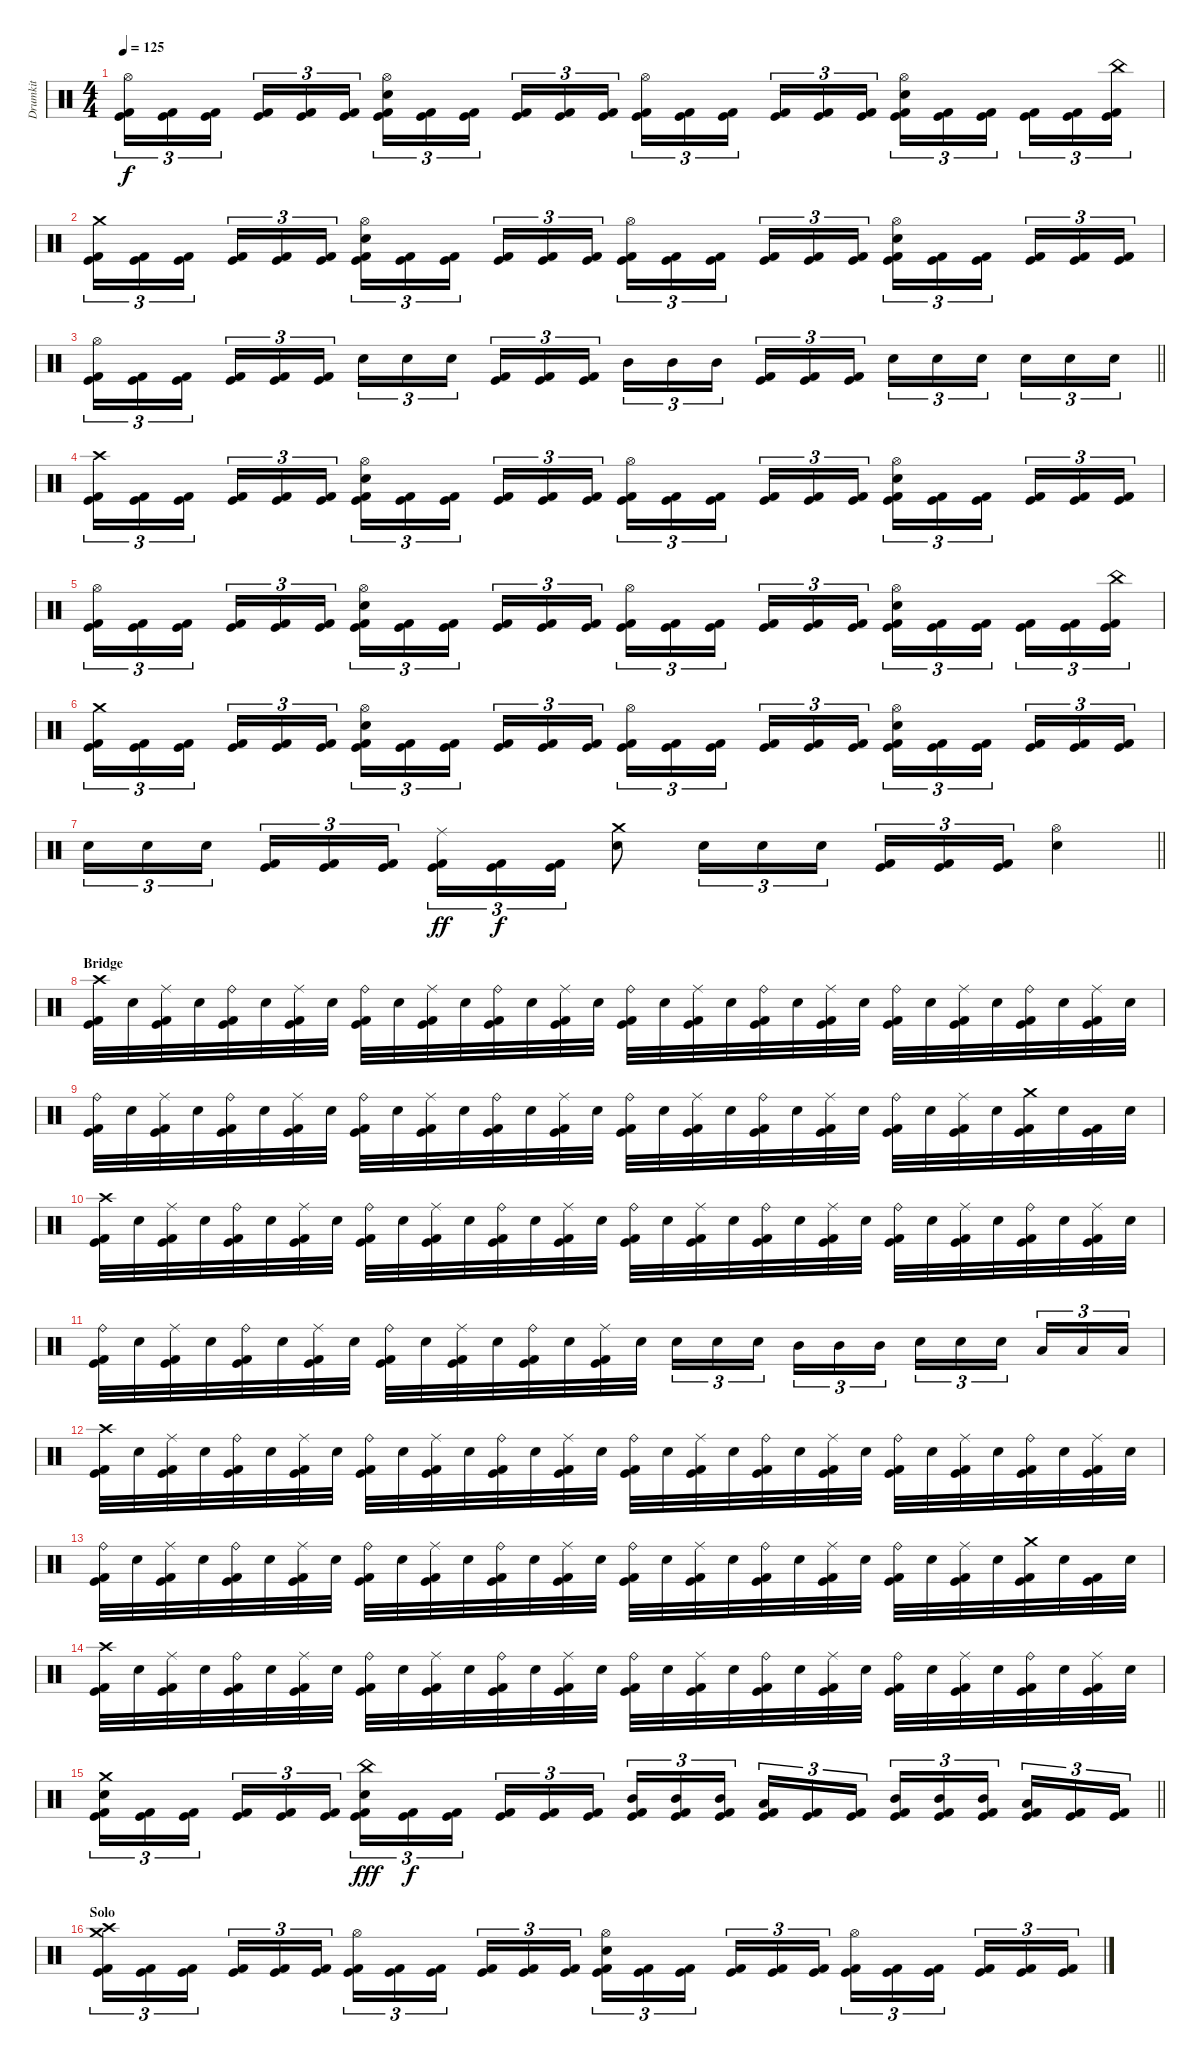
\track ("Drumkit" "Drumkit") {instrument percussion}
\staff {score}
\articulation defaults
\ts (4 4)
\tempo 125
\clef neutral
\ks c
("Hi-Hat (open)" "Kick (hit)" "Kick (hit) 2").16{tu (3 2) dy f} ("Kick (hit)" "Kick (hit) 2").16{tu (3 2)} ("Kick (hit)" "Kick (hit) 2").16{tu (3 2) beam splitsecondary} ("Kick (hit)" "Kick (hit) 2").16{tu (3 2)} ("Kick (hit)" "Kick (hit) 2").16{tu (3 2)} ("Kick (hit)" "Kick (hit) 2").16{tu (3 2)} ("Hi-Hat (open)" "Electric Snare (hit)" "Kick (hit)" "Kick (hit) 2").16{tu (3 2)} ("Kick (hit)" "Kick (hit) 2").16{tu (3 2)} ("Kick (hit)" "Kick (hit) 2").16{tu (3 2) beam splitsecondary} ("Kick (hit)" "Kick (hit) 2").16{tu (3 2)} ("Kick (hit)" "Kick (hit) 2").16{tu (3 2)} ("Kick (hit)" "Kick (hit) 2").16{tu (3 2)} ("Hi-Hat (open)" "Kick (hit)" "Kick (hit) 2").16{tu (3 2)} ("Kick (hit)" "Kick (hit) 2").16{tu (3 2)} ("Kick (hit)" "Kick (hit) 2").16{tu (3 2) beam splitsecondary} ("Kick (hit)" "Kick (hit) 2").16{tu (3 2)} ("Kick (hit)" "Kick (hit) 2").16{tu (3 2)} ("Kick (hit)" "Kick (hit) 2").16{tu (3 2)} ("Hi-Hat (open)" "Electric Snare (hit)" "Kick (hit)" "Kick (hit) 2").16{tu (3 2)} ("Kick (hit)" "Kick (hit) 2").16{tu (3 2)} ("Kick (hit)" "Kick (hit) 2").16{tu (3 2) beam splitsecondary} ("Kick (hit)" "Kick (hit) 2").16{tu (3 2)} ("Kick (hit)" "Kick (hit) 2").16{tu (3 2)} ("China (hit)" "Kick (hit)" "Kick (hit) 2").16{tu (3 2)} |
("Crash medium (hit)" "Kick (hit)" "Kick (hit) 2").16{tu (3 2)} ("Kick (hit)" "Kick (hit) 2").16{tu (3 2)} ("Kick (hit)" "Kick (hit) 2").16{tu (3 2) beam splitsecondary} ("Kick (hit)" "Kick (hit) 2").16{tu (3 2)} ("Kick (hit)" "Kick (hit) 2").16{tu (3 2)} ("Kick (hit)" "Kick (hit) 2").16{tu (3 2)} ("Hi-Hat (open)" "Electric Snare (hit)" "Kick (hit)" "Kick (hit) 2").16{tu (3 2)} ("Kick (hit)" "Kick (hit) 2").16{tu (3 2)} ("Kick (hit)" "Kick (hit) 2").16{tu (3 2) beam splitsecondary} ("Kick (hit)" "Kick (hit) 2").16{tu (3 2)} ("Kick (hit)" "Kick (hit) 2").16{tu (3 2)} ("Kick (hit)" "Kick (hit) 2").16{tu (3 2)} ("Hi-Hat (open)" "Kick (hit)" "Kick (hit) 2").16{tu (3 2)} ("Kick (hit)" "Kick (hit) 2").16{tu (3 2)} ("Kick (hit)" "Kick (hit) 2").16{tu (3 2) beam splitsecondary} ("Kick (hit)" "Kick (hit) 2").16{tu (3 2)} ("Kick (hit)" "Kick (hit) 2").16{tu (3 2)} ("Kick (hit)" "Kick (hit) 2").16{tu (3 2)} ("Hi-Hat (open)" "Electric Snare (hit)" "Kick (hit)" "Kick (hit) 2").16{tu (3 2)} ("Kick (hit)" "Kick (hit) 2").16{tu (3 2)} ("Kick (hit)" "Kick (hit) 2").16{tu (3 2) beam splitsecondary} ("Kick (hit)" "Kick (hit) 2").16{tu (3 2)} ("Kick (hit)" "Kick (hit) 2").16{tu (3 2)} ("Kick (hit)" "Kick (hit) 2").16{tu (3 2)} |
\barLineRight lightlight
("Hi-Hat (open)" "Kick (hit)" "Kick (hit) 2").16{tu (3 2)} ("Kick (hit)" "Kick (hit) 2").16{tu (3 2)} ("Kick (hit)" "Kick (hit) 2").16{tu (3 2) beam splitsecondary} ("Kick (hit)" "Kick (hit) 2").16{tu (3 2)} ("Kick (hit)" "Kick (hit) 2").16{tu (3 2)} ("Kick (hit)" "Kick (hit) 2").16{tu (3 2)} "Electric Snare (hit)".16{tu (3 2)} "Electric Snare (hit)".16{tu (3 2)} "Electric Snare (hit)".16{tu (3 2) beam splitsecondary} ("Kick (hit)" "Kick (hit) 2").16{tu (3 2)} ("Kick (hit)" "Kick (hit) 2").16{tu (3 2)} ("Kick (hit)" "Kick (hit) 2").16{tu (3 2)} "Mid Tom (hit)".16{tu (3 2)} "Mid Tom (hit)".16{tu (3 2)} "Mid Tom (hit)".16{tu (3 2) beam splitsecondary} ("Kick (hit)" "Kick (hit) 2").16{tu (3 2)} ("Kick (hit)" "Kick (hit) 2").16{tu (3 2)} ("Kick (hit)" "Kick (hit) 2").16{tu (3 2)} "Electric Snare (hit)".16{tu (3 2)} "Electric Snare (hit)".16{tu (3 2)} "Electric Snare (hit)".16{tu (3 2) beam splitsecondary} "Electric Snare (hit)".16{tu (3 2)} "Electric Snare (hit)".16{tu (3 2)} "Electric Snare (hit)".16{tu (3 2)} |
("Crash high (hit)" "Kick (hit)" "Kick (hit) 2").16{tu (3 2)} ("Kick (hit)" "Kick (hit) 2").16{tu (3 2)} ("Kick (hit)" "Kick (hit) 2").16{tu (3 2) beam splitsecondary} ("Kick (hit)" "Kick (hit) 2").16{tu (3 2)} ("Kick (hit)" "Kick (hit) 2").16{tu (3 2)} ("Kick (hit)" "Kick (hit) 2").16{tu (3 2)} ("Hi-Hat (open)" "Electric Snare (hit)" "Kick (hit)" "Kick (hit) 2").16{tu (3 2)} ("Kick (hit)" "Kick (hit) 2").16{tu (3 2)} ("Kick (hit)" "Kick (hit) 2").16{tu (3 2) beam splitsecondary} ("Kick (hit)" "Kick (hit) 2").16{tu (3 2)} ("Kick (hit)" "Kick (hit) 2").16{tu (3 2)} ("Kick (hit)" "Kick (hit) 2").16{tu (3 2)} ("Hi-Hat (open)" "Kick (hit)" "Kick (hit) 2").16{tu (3 2)} ("Kick (hit)" "Kick (hit) 2").16{tu (3 2)} ("Kick (hit)" "Kick (hit) 2").16{tu (3 2) beam splitsecondary} ("Kick (hit)" "Kick (hit) 2").16{tu (3 2)} ("Kick (hit)" "Kick (hit) 2").16{tu (3 2)} ("Kick (hit)" "Kick (hit) 2").16{tu (3 2)} ("Hi-Hat (open)" "Electric Snare (hit)" "Kick (hit)" "Kick (hit) 2").16{tu (3 2)} ("Kick (hit)" "Kick (hit) 2").16{tu (3 2)} ("Kick (hit)" "Kick (hit) 2").16{tu (3 2) beam splitsecondary} ("Kick (hit)" "Kick (hit) 2").16{tu (3 2)} ("Kick (hit)" "Kick (hit) 2").16{tu (3 2)} ("Kick (hit)" "Kick (hit) 2").16{tu (3 2)} |
("Hi-Hat (open)" "Kick (hit)" "Kick (hit) 2").16{tu (3 2)} ("Kick (hit)" "Kick (hit) 2").16{tu (3 2)} ("Kick (hit)" "Kick (hit) 2").16{tu (3 2) beam splitsecondary} ("Kick (hit)" "Kick (hit) 2").16{tu (3 2)} ("Kick (hit)" "Kick (hit) 2").16{tu (3 2)} ("Kick (hit)" "Kick (hit) 2").16{tu (3 2)} ("Hi-Hat (open)" "Electric Snare (hit)" "Kick (hit)" "Kick (hit) 2").16{tu (3 2)} ("Kick (hit)" "Kick (hit) 2").16{tu (3 2)} ("Kick (hit)" "Kick (hit) 2").16{tu (3 2) beam splitsecondary} ("Kick (hit)" "Kick (hit) 2").16{tu (3 2)} ("Kick (hit)" "Kick (hit) 2").16{tu (3 2)} ("Kick (hit)" "Kick (hit) 2").16{tu (3 2)} ("Hi-Hat (open)" "Kick (hit)" "Kick (hit) 2").16{tu (3 2)} ("Kick (hit)" "Kick (hit) 2").16{tu (3 2)} ("Kick (hit)" "Kick (hit) 2").16{tu (3 2) beam splitsecondary} ("Kick (hit)" "Kick (hit) 2").16{tu (3 2)} ("Kick (hit)" "Kick (hit) 2").16{tu (3 2)} ("Kick (hit)" "Kick (hit) 2").16{tu (3 2)} ("Hi-Hat (open)" "Electric Snare (hit)" "Kick (hit)" "Kick (hit) 2").16{tu (3 2)} ("Kick (hit)" "Kick (hit) 2").16{tu (3 2)} ("Kick (hit)" "Kick (hit) 2").16{tu (3 2) beam splitsecondary} ("Kick (hit)" "Kick (hit) 2").16{tu (3 2)} ("Kick (hit)" "Kick (hit) 2").16{tu (3 2)} ("China (hit)" "Kick (hit)" "Kick (hit) 2").16{tu (3 2)} |
("Crash medium (hit)" "Kick (hit)" "Kick (hit) 2").16{tu (3 2)} ("Kick (hit)" "Kick (hit) 2").16{tu (3 2)} ("Kick (hit)" "Kick (hit) 2").16{tu (3 2) beam splitsecondary} ("Kick (hit)" "Kick (hit) 2").16{tu (3 2)} ("Kick (hit)" "Kick (hit) 2").16{tu (3 2)} ("Kick (hit)" "Kick (hit) 2").16{tu (3 2)} ("Hi-Hat (open)" "Electric Snare (hit)" "Kick (hit)" "Kick (hit) 2").16{tu (3 2)} ("Kick (hit)" "Kick (hit) 2").16{tu (3 2)} ("Kick (hit)" "Kick (hit) 2").16{tu (3 2) beam splitsecondary} ("Kick (hit)" "Kick (hit) 2").16{tu (3 2)} ("Kick (hit)" "Kick (hit) 2").16{tu (3 2)} ("Kick (hit)" "Kick (hit) 2").16{tu (3 2)} ("Hi-Hat (open)" "Kick (hit)" "Kick (hit) 2").16{tu (3 2)} ("Kick (hit)" "Kick (hit) 2").16{tu (3 2)} ("Kick (hit)" "Kick (hit) 2").16{tu (3 2) beam splitsecondary} ("Kick (hit)" "Kick (hit) 2").16{tu (3 2)} ("Kick (hit)" "Kick (hit) 2").16{tu (3 2)} ("Kick (hit)" "Kick (hit) 2").16{tu (3 2)} ("Hi-Hat (open)" "Electric Snare (hit)" "Kick (hit)" "Kick (hit) 2").16{tu (3 2)} ("Kick (hit)" "Kick (hit) 2").16{tu (3 2)} ("Kick (hit)" "Kick (hit) 2").16{tu (3 2) beam splitsecondary} ("Kick (hit)" "Kick (hit) 2").16{tu (3 2)} ("Kick (hit)" "Kick (hit) 2").16{tu (3 2)} ("Kick (hit)" "Kick (hit) 2").16{tu (3 2)} |
\barLineRight lightlight "Electric Snare (hit)".16{tu (3 2)} "Electric Snare (hit)".16{tu (3 2)} "Electric Snare (hit)".16{tu (3 2) beam splitsecondary}
("Kick (hit)" "Kick (hit) 2").16{tu (3 2)} ("Kick (hit)" "Kick (hit) 2").16{tu (3 2)} ("Kick (hit)" "Kick (hit) 2").16{tu (3 2)} ("Ride (middle)" "Kick (hit)" "Kick (hit) 2").16{tu (3 2) dy ff} ("Kick (hit)" "Kick (hit) 2").16{tu (3 2) dy f} ("Kick (hit)" "Kick (hit) 2").16{tu (3 2)} ("Crash medium (hit)" "Electric Snare (hit)").8 "Electric Snare (hit)".16{tu (3 2)} "Electric Snare (hit)".16{tu (3 2)} "Electric Snare (hit)".16{tu (3 2) beam splitsecondary} ("Kick (hit)" "Kick (hit) 2").16{tu (3 2)} ("Kick (hit)" "Kick (hit) 2").16{tu (3 2)} ("Kick (hit)" "Kick (hit) 2").16{tu (3 2)} ("Hi-Hat (open)" "Electric Snare (hit)").4 |
\section ("" "Bridge")
("Crash high (hit)" "Kick (hit)" "Kick (hit) 2").32 "Electric Snare (hit)".32 ("Ride (middle)" "Kick (hit)" "Kick (hit) 2").32 "Electric Snare (hit)".32 ("Ride (bell)" "Kick (hit)" "Kick (hit) 2").32 "Electric Snare (hit)".32 ("Ride (middle)" "Kick (hit)" "Kick (hit) 2").32 "Electric Snare (hit)".32 ("Ride (bell)" "Kick (hit)" "Kick (hit) 2").32 "Electric Snare (hit)".32 ("Ride (middle)" "Kick (hit)" "Kick (hit) 2").32 "Electric Snare (hit)".32 ("Ride (bell)" "Kick (hit)" "Kick (hit) 2").32 "Electric Snare (hit)".32 ("Ride (middle)" "Kick (hit)" "Kick (hit) 2").32 "Electric Snare (hit)".32 ("Ride (bell)" "Kick (hit)" "Kick (hit) 2").32 "Electric Snare (hit)".32 ("Ride (middle)" "Kick (hit)" "Kick (hit) 2").32 "Electric Snare (hit)".32 ("Ride (bell)" "Kick (hit)" "Kick (hit) 2").32 "Electric Snare (hit)".32 ("Ride (middle)" "Kick (hit)" "Kick (hit) 2").32 "Electric Snare (hit)".32 ("Ride (bell)" "Kick (hit)" "Kick (hit) 2").32 "Electric Snare (hit)".32 ("Ride (middle)" "Kick (hit)" "Kick (hit) 2").32 "Electric Snare (hit)".32 ("Ride (bell)" "Kick (hit)" "Kick (hit) 2").32 "Electric Snare (hit)".32 ("Ride (middle)" "Kick (hit)" "Kick (hit) 2").32 "Electric Snare (hit)".32 |
("Ride (bell)" "Kick (hit)" "Kick (hit) 2").32 "Electric Snare (hit)".32 ("Ride (middle)" "Kick (hit)" "Kick (hit) 2").32 "Electric Snare (hit)".32 ("Ride (bell)" "Kick (hit)" "Kick (hit) 2").32 "Electric Snare (hit)".32 ("Ride (middle)" "Kick (hit)" "Kick (hit) 2").32 "Electric Snare (hit)".32 ("Ride (bell)" "Kick (hit)" "Kick (hit) 2").32 "Electric Snare (hit)".32 ("Ride (middle)" "Kick (hit)" "Kick (hit) 2").32 "Electric Snare (hit)".32 ("Ride (bell)" "Kick (hit)" "Kick (hit) 2").32 "Electric Snare (hit)".32 ("Ride (middle)" "Kick (hit)" "Kick (hit) 2").32 "Electric Snare (hit)".32 ("Ride (bell)" "Kick (hit)" "Kick (hit) 2").32 "Electric Snare (hit)".32 ("Ride (middle)" "Kick (hit)" "Kick (hit) 2").32 "Electric Snare (hit)".32 ("Ride (bell)" "Kick (hit)" "Kick (hit) 2").32 "Electric Snare (hit)".32 ("Ride (middle)" "Kick (hit)" "Kick (hit) 2").32 "Electric Snare (hit)".32 ("Ride (bell)" "Kick (hit)" "Kick (hit) 2").32 "Electric Snare (hit)".32 ("Ride (middle)" "Kick (hit)" "Kick (hit) 2").32 "Electric Snare (hit)".32 ("Crash medium (hit)" "Kick (hit)" "Kick (hit) 2").32 "Electric Snare (hit)".32 ("Kick (hit)" "Kick (hit) 2").32 "Electric Snare (hit)".32 |
("Crash high (hit)" "Kick (hit)" "Kick (hit) 2").32 "Electric Snare (hit)".32 ("Ride (middle)" "Kick (hit)" "Kick (hit) 2").32 "Electric Snare (hit)".32 ("Ride (bell)" "Kick (hit)" "Kick (hit) 2").32 "Electric Snare (hit)".32 ("Ride (middle)" "Kick (hit)" "Kick (hit) 2").32 "Electric Snare (hit)".32 ("Ride (bell)" "Kick (hit)" "Kick (hit) 2").32 "Electric Snare (hit)".32 ("Ride (middle)" "Kick (hit)" "Kick (hit) 2").32 "Electric Snare (hit)".32 ("Ride (bell)" "Kick (hit)" "Kick (hit) 2").32 "Electric Snare (hit)".32 ("Ride (middle)" "Kick (hit)" "Kick (hit) 2").32 "Electric Snare (hit)".32 ("Ride (bell)" "Kick (hit)" "Kick (hit) 2").32 "Electric Snare (hit)".32 ("Ride (middle)" "Kick (hit)" "Kick (hit) 2").32 "Electric Snare (hit)".32 ("Ride (bell)" "Kick (hit)" "Kick (hit) 2").32 "Electric Snare (hit)".32 ("Ride (middle)" "Kick (hit)" "Kick (hit) 2").32 "Electric Snare (hit)".32 ("Ride (bell)" "Kick (hit)" "Kick (hit) 2").32 "Electric Snare (hit)".32 ("Ride (middle)" "Kick (hit)" "Kick (hit) 2").32 "Electric Snare (hit)".32 ("Ride (bell)" "Kick (hit)" "Kick (hit) 2").32 "Electric Snare (hit)".32 ("Ride (middle)" "Kick (hit)" "Kick (hit) 2").32 "Electric Snare (hit)".32 |
("Ride (bell)" "Kick (hit)" "Kick (hit) 2").32 "Electric Snare (hit)".32 ("Ride (middle)" "Kick (hit)" "Kick (hit) 2").32 "Electric Snare (hit)".32 ("Ride (bell)" "Kick (hit)" "Kick (hit) 2").32 "Electric Snare (hit)".32 ("Ride (middle)" "Kick (hit)" "Kick (hit) 2").32 "Electric Snare (hit)".32 ("Ride (bell)" "Kick (hit)" "Kick (hit) 2").32 "Electric Snare (hit)".32 ("Ride (middle)" "Kick (hit)" "Kick (hit) 2").32 "Electric Snare (hit)".32 ("Ride (bell)" "Kick (hit)" "Kick (hit) 2").32 "Electric Snare (hit)".32 ("Ride (middle)" "Kick (hit)" "Kick (hit) 2").32 "Electric Snare (hit)".32 "Electric Snare (hit)".16{tu (3 2)} "Electric Snare (hit)".16{tu (3 2)} "Electric Snare (hit)".16{tu (3 2) beam splitsecondary} "Mid Tom (hit)".16{tu (3 2)} "Mid Tom (hit)".16{tu (3 2)} "Mid Tom (hit)".16{tu (3 2)} "Electric Snare (hit)".16{tu (3 2)} "Electric Snare (hit)".16{tu (3 2)} "Electric Snare (hit)".16{tu (3 2) beam splitsecondary} "Low Tom (hit)".16{tu (3 2)} "Low Tom (hit)".16{tu (3 2)} "Low Tom (hit)".16{tu (3 2)} |
("Crash high (hit)" "Kick (hit)" "Kick (hit) 2").32 "Electric Snare (hit)".32 ("Ride (middle)" "Kick (hit)" "Kick (hit) 2").32 "Electric Snare (hit)".32 ("Ride (bell)" "Kick (hit)" "Kick (hit) 2").32 "Electric Snare (hit)".32 ("Ride (middle)" "Kick (hit)" "Kick (hit) 2").32 "Electric Snare (hit)".32 ("Ride (bell)" "Kick (hit)" "Kick (hit) 2").32 "Electric Snare (hit)".32 ("Ride (middle)" "Kick (hit)" "Kick (hit) 2").32 "Electric Snare (hit)".32 ("Ride (bell)" "Kick (hit)" "Kick (hit) 2").32 "Electric Snare (hit)".32 ("Ride (middle)" "Kick (hit)" "Kick (hit) 2").32 "Electric Snare (hit)".32 ("Ride (bell)" "Kick (hit)" "Kick (hit) 2").32 "Electric Snare (hit)".32 ("Ride (middle)" "Kick (hit)" "Kick (hit) 2").32 "Electric Snare (hit)".32 ("Ride (bell)" "Kick (hit)" "Kick (hit) 2").32 "Electric Snare (hit)".32 ("Ride (middle)" "Kick (hit)" "Kick (hit) 2").32 "Electric Snare (hit)".32 ("Ride (bell)" "Kick (hit)" "Kick (hit) 2").32 "Electric Snare (hit)".32 ("Ride (middle)" "Kick (hit)" "Kick (hit) 2").32 "Electric Snare (hit)".32 ("Ride (bell)" "Kick (hit)" "Kick (hit) 2").32 "Electric Snare (hit)".32 ("Ride (middle)" "Kick (hit)" "Kick (hit) 2").32 "Electric Snare (hit)".32 |
("Ride (bell)" "Kick (hit)" "Kick (hit) 2").32 "Electric Snare (hit)".32 ("Ride (middle)" "Kick (hit)" "Kick (hit) 2").32 "Electric Snare (hit)".32 ("Ride (bell)" "Kick (hit)" "Kick (hit) 2").32 "Electric Snare (hit)".32 ("Ride (middle)" "Kick (hit)" "Kick (hit) 2").32 "Electric Snare (hit)".32 ("Ride (bell)" "Kick (hit)" "Kick (hit) 2").32 "Electric Snare (hit)".32 ("Ride (middle)" "Kick (hit)" "Kick (hit) 2").32 "Electric Snare (hit)".32 ("Ride (bell)" "Kick (hit)" "Kick (hit) 2").32 "Electric Snare (hit)".32 ("Ride (middle)" "Kick (hit)" "Kick (hit) 2").32 "Electric Snare (hit)".32 ("Ride (bell)" "Kick (hit)" "Kick (hit) 2").32 "Electric Snare (hit)".32 ("Ride (middle)" "Kick (hit)" "Kick (hit) 2").32 "Electric Snare (hit)".32 ("Ride (bell)" "Kick (hit)" "Kick (hit) 2").32 "Electric Snare (hit)".32 ("Ride (middle)" "Kick (hit)" "Kick (hit) 2").32 "Electric Snare (hit)".32 ("Ride (bell)" "Kick (hit)" "Kick (hit) 2").32 "Electric Snare (hit)".32 ("Ride (middle)" "Kick (hit)" "Kick (hit) 2").32 "Electric Snare (hit)".32 ("Crash medium (hit)" "Kick (hit)" "Kick (hit) 2").32 "Electric Snare (hit)".32 ("Kick (hit)" "Kick (hit) 2").32 "Electric Snare (hit)".32 |
("Crash high (hit)" "Kick (hit)" "Kick (hit) 2").32 "Electric Snare (hit)".32 ("Ride (middle)" "Kick (hit)" "Kick (hit) 2").32 "Electric Snare (hit)".32 ("Ride (bell)" "Kick (hit)" "Kick (hit) 2").32 "Electric Snare (hit)".32 ("Ride (middle)" "Kick (hit)" "Kick (hit) 2").32 "Electric Snare (hit)".32 ("Ride (bell)" "Kick (hit)" "Kick (hit) 2").32 "Electric Snare (hit)".32 ("Ride (middle)" "Kick (hit)" "Kick (hit) 2").32 "Electric Snare (hit)".32 ("Ride (bell)" "Kick (hit)" "Kick (hit) 2").32 "Electric Snare (hit)".32 ("Ride (middle)" "Kick (hit)" "Kick (hit) 2").32 "Electric Snare (hit)".32 ("Ride (bell)" "Kick (hit)" "Kick (hit) 2").32 "Electric Snare (hit)".32 ("Ride (middle)" "Kick (hit)" "Kick (hit) 2").32 "Electric Snare (hit)".32 ("Ride (bell)" "Kick (hit)" "Kick (hit) 2").32 "Electric Snare (hit)".32 ("Ride (middle)" "Kick (hit)" "Kick (hit) 2").32 "Electric Snare (hit)".32 ("Ride (bell)" "Kick (hit)" "Kick (hit) 2").32 "Electric Snare (hit)".32 ("Ride (middle)" "Kick (hit)" "Kick (hit) 2").32 "Electric Snare (hit)".32 ("Ride (bell)" "Kick (hit)" "Kick (hit) 2").32 "Electric Snare (hit)".32 ("Ride (middle)" "Kick (hit)" "Kick (hit) 2").32 "Electric Snare (hit)".32 |
\barLineRight lightlight
("Crash medium (hit)" "Electric Snare (hit)" "Kick (hit)" "Kick (hit) 2").16{tu (3 2)} ("Kick (hit)" "Kick (hit) 2").16{tu (3 2)} ("Kick (hit)" "Kick (hit) 2").16{tu (3 2) beam splitsecondary} ("Kick (hit)" "Kick (hit) 2").16{tu (3 2)} ("Kick (hit)" "Kick (hit) 2").16{tu (3 2)} ("Kick (hit)" "Kick (hit) 2").16{tu (3 2)} ("China (hit)" "Electric Snare (hit)" "Kick (hit)" "Kick (hit) 2").16{tu (3 2) dy fff} ("Kick (hit)" "Kick (hit) 2").16{tu (3 2) dy f} ("Kick (hit)" "Kick (hit) 2").16{tu (3 2) beam splitsecondary} ("Kick (hit)" "Kick (hit) 2").16{tu (3 2)} ("Kick (hit)" "Kick (hit) 2").16{tu (3 2)} ("Kick (hit)" "Kick (hit) 2").16{tu (3 2)} ("Mid Tom (hit)" "Kick (hit)" "Kick (hit) 2").16{tu (3 2)} ("Mid Tom (hit)" "Kick (hit)" "Kick (hit) 2").16{tu (3 2)} ("Mid Tom (hit)" "Kick (hit)" "Kick (hit) 2").16{tu (3 2) beam splitsecondary} ("Low Tom (hit)" "Kick (hit)" "Kick (hit) 2").16{tu (3 2)} ("Kick (hit)" "Kick (hit) 2").16{tu (3 2)} ("Kick (hit)" "Kick (hit) 2").16{tu (3 2)} ("Mid Tom (hit)" "Kick (hit)" "Kick (hit) 2").16{tu (3 2)} ("Mid Tom (hit)" "Kick (hit)" "Kick (hit) 2").16{tu (3 2)} ("Mid Tom (hit)" "Kick (hit)" "Kick (hit) 2").16{tu (3 2) beam splitsecondary} ("Low Tom (hit)" "Kick (hit)" "Kick (hit) 2").16{tu (3 2)} ("Kick (hit)" "Kick (hit) 2").16{tu (3 2)} ("Kick (hit)" "Kick (hit) 2").16{tu (3 2)} |
\section ("" "Solo")
("Crash high (hit)" "Crash medium (hit)" "Kick (hit)" "Kick (hit) 2").16{tu (3 2)} ("Kick (hit)" "Kick (hit) 2").16{tu (3 2)} ("Kick (hit)" "Kick (hit) 2").16{tu (3 2) beam splitsecondary} ("Kick (hit)" "Kick (hit) 2").16{tu (3 2)} ("Kick (hit)" "Kick (hit) 2").16{tu (3 2)} ("Kick (hit)" "Kick (hit) 2").16{tu (3 2)} ("Hi-Hat (open)" "Kick (hit)" "Kick (hit) 2").16{tu (3 2)} ("Kick (hit)" "Kick (hit) 2").16{tu (3 2)} ("Kick (hit)" "Kick (hit) 2").16{tu (3 2) beam splitsecondary} ("Kick (hit)" "Kick (hit) 2").16{tu (3 2)} ("Kick (hit)" "Kick (hit) 2").16{tu (3 2)} ("Kick (hit)" "Kick (hit) 2").16{tu (3 2)} ("Hi-Hat (open)" "Electric Snare (hit)" "Kick (hit)" "Kick (hit) 2").16{tu (3 2)} ("Kick (hit)" "Kick (hit) 2").16{tu (3 2)} ("Kick (hit)" "Kick (hit) 2").16{tu (3 2) beam splitsecondary} ("Kick (hit)" "Kick (hit) 2").16{tu (3 2)} ("Kick (hit)" "Kick (hit) 2").16{tu (3 2)} ("Kick (hit)" "Kick (hit) 2").16{tu (3 2)} ("Hi-Hat (open)" "Kick (hit)" "Kick (hit) 2").16{tu (3 2)} ("Kick (hit)" "Kick (hit) 2").16{tu (3 2)} ("Kick (hit)" "Kick (hit) 2").16{tu (3 2) beam splitsecondary} ("Kick (hit)" "Kick (hit) 2").16{tu (3 2)} ("Kick (hit)" "Kick (hit) 2").16{tu (3 2)} ("Kick (hit)" "Kick (hit) 2").16{tu (3 2)}
